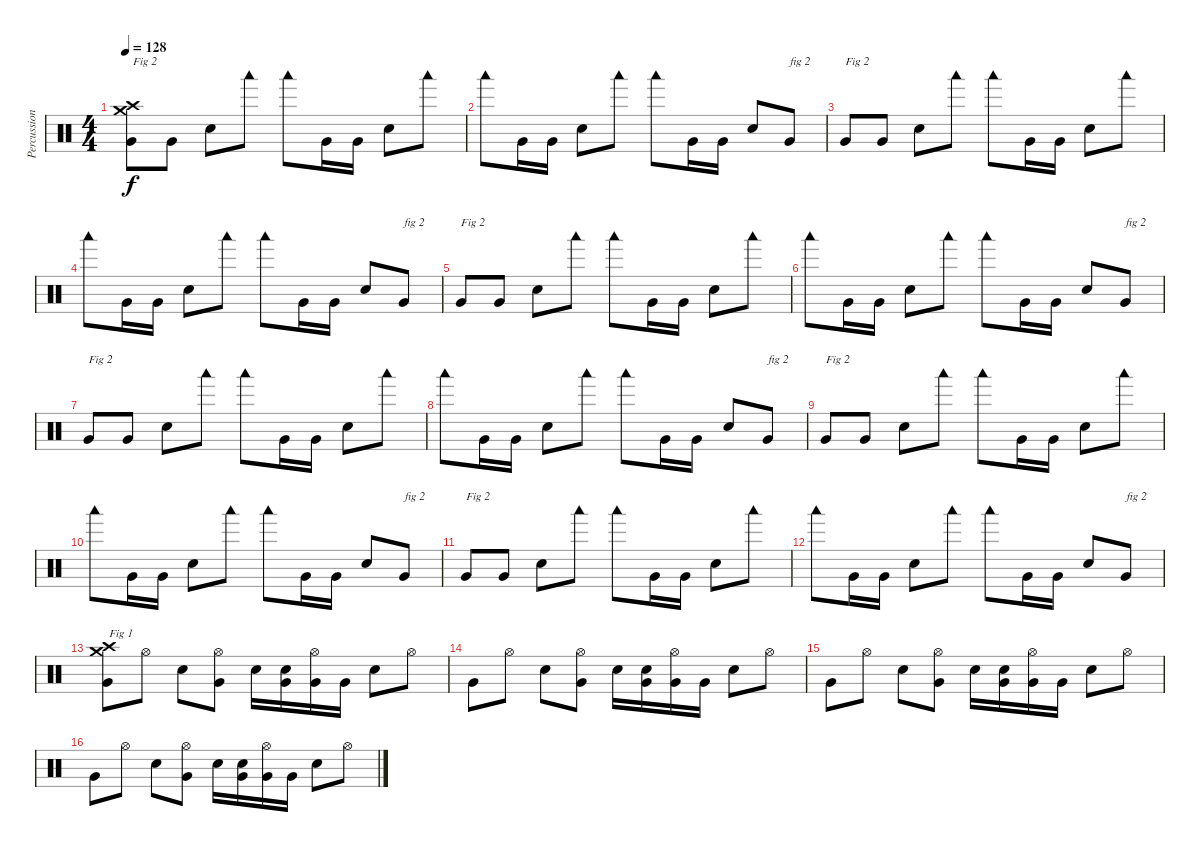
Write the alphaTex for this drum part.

\track ("Percussions" "Percussion") {instrument percussion}
\staff {score}
\articulation defaults
\ts (4 4)
\tempo 128
\clef neutral
\ks c
("Very Low Tom (hit)" "Crash medium (hit)" "Crash high (hit)").8{txt "Fig 2" dy f} "Very Low Tom (hit)".8 "Snare (hit) 2".8 "Woodblock low (hit)".8 "Woodblock low (hit)".8 "Very Low Tom (hit)".16 "Very Low Tom (hit)".16 "Snare (hit) 2".8 "Woodblock low (hit)".8 |
"Woodblock low (hit)".8 "Very Low Tom (hit)".16 "Very Low Tom (hit)".16 "Snare (hit) 2".8 "Woodblock low (hit)".8 "Woodblock low (hit)".8 "Very Low Tom (hit)".16 "Very Low Tom (hit)".16 "Snare (hit) 2".8 "Very Low Tom (hit)".8{txt "fig 2"} |
"Very Low Tom (hit)".8{txt "Fig 2"} "Very Low Tom (hit)".8 "Snare (hit) 2".8 "Woodblock low (hit)".8 "Woodblock low (hit)".8 "Very Low Tom (hit)".16 "Very Low Tom (hit)".16 "Snare (hit) 2".8 "Woodblock low (hit)".8 |
"Woodblock low (hit)".8 "Very Low Tom (hit)".16 "Very Low Tom (hit)".16 "Snare (hit) 2".8 "Woodblock low (hit)".8 "Woodblock low (hit)".8 "Very Low Tom (hit)".16 "Very Low Tom (hit)".16 "Snare (hit) 2".8 "Very Low Tom (hit)".8{txt "fig 2"} |
"Very Low Tom (hit)".8{txt "Fig 2"} "Very Low Tom (hit)".8 "Snare (hit) 2".8 "Woodblock low (hit)".8 "Woodblock low (hit)".8 "Very Low Tom (hit)".16 "Very Low Tom (hit)".16 "Snare (hit) 2".8 "Woodblock low (hit)".8 |
"Woodblock low (hit)".8 "Very Low Tom (hit)".16 "Very Low Tom (hit)".16 "Snare (hit) 2".8 "Woodblock low (hit)".8 "Woodblock low (hit)".8 "Very Low Tom (hit)".16 "Very Low Tom (hit)".16 "Snare (hit) 2".8 "Very Low Tom (hit)".8{txt "fig 2"} |
"Very Low Tom (hit)".8{txt "Fig 2"} "Very Low Tom (hit)".8 "Snare (hit) 2".8 "Woodblock low (hit)".8 "Woodblock low (hit)".8 "Very Low Tom (hit)".16 "Very Low Tom (hit)".16 "Snare (hit) 2".8 "Woodblock low (hit)".8 |
"Woodblock low (hit)".8 "Very Low Tom (hit)".16 "Very Low Tom (hit)".16 "Snare (hit) 2".8 "Woodblock low (hit)".8 "Woodblock low (hit)".8 "Very Low Tom (hit)".16 "Very Low Tom (hit)".16 "Snare (hit) 2".8 "Very Low Tom (hit)".8{txt "fig 2"} |
"Very Low Tom (hit)".8{txt "Fig 2"} "Very Low Tom (hit)".8 "Snare (hit) 2".8 "Woodblock low (hit)".8 "Woodblock low (hit)".8 "Very Low Tom (hit)".16 "Very Low Tom (hit)".16 "Snare (hit) 2".8 "Woodblock low (hit)".8 |
"Woodblock low (hit)".8 "Very Low Tom (hit)".16 "Very Low Tom (hit)".16 "Snare (hit) 2".8 "Woodblock low (hit)".8 "Woodblock low (hit)".8 "Very Low Tom (hit)".16 "Very Low Tom (hit)".16 "Snare (hit) 2".8 "Very Low Tom (hit)".8{txt "fig 2"} |
"Very Low Tom (hit)".8{txt "Fig 2"} "Very Low Tom (hit)".8 "Snare (hit) 2".8 "Woodblock low (hit)".8 "Woodblock low (hit)".8 "Very Low Tom (hit)".16 "Very Low Tom (hit)".16 "Snare (hit) 2".8 "Woodblock low (hit)".8 |
"Woodblock low (hit)".8 "Very Low Tom (hit)".16 "Very Low Tom (hit)".16 "Snare (hit) 2".8 "Woodblock low (hit)".8 "Woodblock low (hit)".8 "Very Low Tom (hit)".16 "Very Low Tom (hit)".16 "Snare (hit) 2".8 "Very Low Tom (hit)".8{txt "fig 2"} |
("Very Low Tom (hit)" "Crash medium (hit)" "Crash high (hit)").8{txt "Fig 1"} "Hi-Hat (open)".8 "Snare (hit) 2".8 ("Very Low Tom (hit)" "Hi-Hat (open)").8 "Snare (hit) 2".16 ("Very Low Tom (hit)" "Snare (hit) 2").16 ("Very Low Tom (hit)" "Hi-Hat (open)").16 "Very Low Tom (hit)".16 "Snare (hit) 2".8 "Hi-Hat (open)".8 |
"Very Low Tom (hit)".8 "Hi-Hat (open)".8 "Snare (hit) 2".8 ("Very Low Tom (hit)" "Hi-Hat (open)").8 "Snare (hit) 2".16 ("Very Low Tom (hit)" "Snare (hit) 2").16 ("Very Low Tom (hit)" "Hi-Hat (open)").16 "Very Low Tom (hit)".16 "Snare (hit) 2".8 "Hi-Hat (open)".8 |
"Very Low Tom (hit)".8 "Hi-Hat (open)".8 "Snare (hit) 2".8 ("Very Low Tom (hit)" "Hi-Hat (open)").8 "Snare (hit) 2".16 ("Very Low Tom (hit)" "Snare (hit) 2").16 ("Very Low Tom (hit)" "Hi-Hat (open)").16 "Very Low Tom (hit)".16 "Snare (hit) 2".8 "Hi-Hat (open)".8 |
"Very Low Tom (hit)".8 "Hi-Hat (open)".8 "Snare (hit) 2".8 ("Very Low Tom (hit)" "Hi-Hat (open)").8 "Snare (hit) 2".16 ("Very Low Tom (hit)" "Snare (hit) 2").16 ("Very Low Tom (hit)" "Hi-Hat (open)").16 "Very Low Tom (hit)".16 "Snare (hit) 2".8 "Hi-Hat (open)".8
